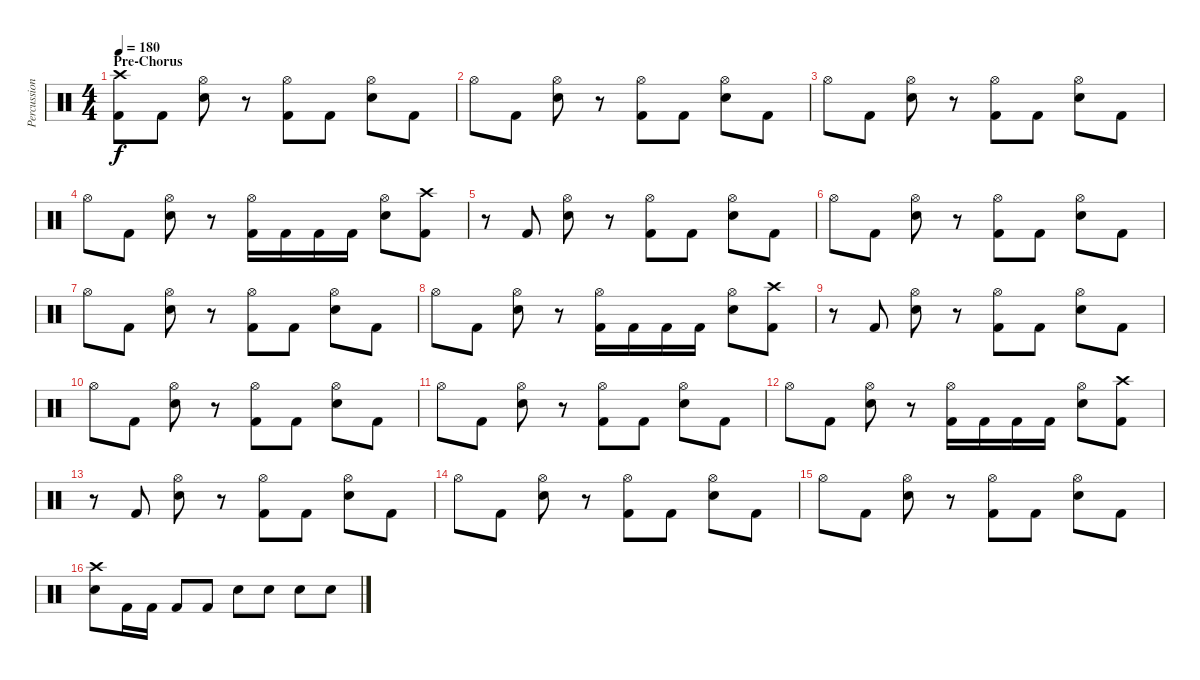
\track ("Percussion" "Percussion") {instrument percussion}
\staff {score}
\articulation defaults
\ts (4 4)
\section ("" "Pre-Chorus")
\tempo 180
\clef neutral
\ks c
("Crash high (hit)" "Kick (hit) 2").8{dy f} "Kick (hit) 2".8 ("Hi-Hat (open)" "Electric Snare (hit)").8 r.8 ("Hi-Hat (open)" "Kick (hit) 2").8 "Kick (hit) 2".8 ("Hi-Hat (open)" "Electric Snare (hit)").8 "Kick (hit) 2".8 |
"Hi-Hat (open)".8 "Kick (hit) 2".8 ("Hi-Hat (open)" "Electric Snare (hit)").8 r.8 ("Hi-Hat (open)" "Kick (hit) 2").8 "Kick (hit) 2".8 ("Hi-Hat (open)" "Electric Snare (hit)").8 "Kick (hit) 2".8 |
"Hi-Hat (open)".8 "Kick (hit) 2".8 ("Hi-Hat (open)" "Electric Snare (hit)").8 r.8 ("Hi-Hat (open)" "Kick (hit) 2").8 "Kick (hit) 2".8 ("Hi-Hat (open)" "Electric Snare (hit)").8 "Kick (hit) 2".8 |
"Hi-Hat (open)".8 "Kick (hit) 2".8 ("Hi-Hat (open)" "Electric Snare (hit)").8 r.8 ("Hi-Hat (open)" "Kick (hit) 2").16 "Kick (hit) 2".16 "Kick (hit) 2".16 "Kick (hit) 2".16 ("Hi-Hat (open)" "Electric Snare (hit)").8 ("Crash high (hit)" "Kick (hit) 2").8 |
r.8 "Kick (hit) 2".8 ("Hi-Hat (open)" "Electric Snare (hit)").8 r.8 ("Hi-Hat (open)" "Kick (hit) 2").8 "Kick (hit) 2".8 ("Hi-Hat (open)" "Electric Snare (hit)").8 "Kick (hit) 2".8 |
"Hi-Hat (open)".8 "Kick (hit) 2".8 ("Hi-Hat (open)" "Electric Snare (hit)").8 r.8 ("Hi-Hat (open)" "Kick (hit) 2").8 "Kick (hit) 2".8 ("Hi-Hat (open)" "Electric Snare (hit)").8 "Kick (hit) 2".8 |
"Hi-Hat (open)".8 "Kick (hit) 2".8 ("Hi-Hat (open)" "Electric Snare (hit)").8 r.8 ("Hi-Hat (open)" "Kick (hit) 2").8 "Kick (hit) 2".8 ("Hi-Hat (open)" "Electric Snare (hit)").8 "Kick (hit) 2".8 |
"Hi-Hat (open)".8 "Kick (hit) 2".8 ("Hi-Hat (open)" "Electric Snare (hit)").8 r.8 ("Hi-Hat (open)" "Kick (hit) 2").16 "Kick (hit) 2".16 "Kick (hit) 2".16 "Kick (hit) 2".16 ("Hi-Hat (open)" "Electric Snare (hit)").8 ("Crash high (hit)" "Kick (hit) 2").8 |
r.8 "Kick (hit) 2".8 ("Hi-Hat (open)" "Electric Snare (hit)").8 r.8 ("Hi-Hat (open)" "Kick (hit) 2").8 "Kick (hit) 2".8 ("Hi-Hat (open)" "Electric Snare (hit)").8 "Kick (hit) 2".8 |
"Hi-Hat (open)".8 "Kick (hit) 2".8 ("Hi-Hat (open)" "Electric Snare (hit)").8 r.8 ("Hi-Hat (open)" "Kick (hit) 2").8 "Kick (hit) 2".8 ("Hi-Hat (open)" "Electric Snare (hit)").8 "Kick (hit) 2".8 |
"Hi-Hat (open)".8 "Kick (hit) 2".8 ("Hi-Hat (open)" "Electric Snare (hit)").8 r.8 ("Hi-Hat (open)" "Kick (hit) 2").8 "Kick (hit) 2".8 ("Hi-Hat (open)" "Electric Snare (hit)").8 "Kick (hit) 2".8 |
"Hi-Hat (open)".8 "Kick (hit) 2".8 ("Hi-Hat (open)" "Electric Snare (hit)").8 r.8 ("Hi-Hat (open)" "Kick (hit) 2").16 "Kick (hit) 2".16 "Kick (hit) 2".16 "Kick (hit) 2".16 ("Hi-Hat (open)" "Electric Snare (hit)").8 ("Crash high (hit)" "Kick (hit) 2").8 |
r.8 "Kick (hit) 2".8 ("Hi-Hat (open)" "Electric Snare (hit)").8 r.8 ("Hi-Hat (open)" "Kick (hit) 2").8 "Kick (hit) 2".8 ("Hi-Hat (open)" "Electric Snare (hit)").8 "Kick (hit) 2".8 |
"Hi-Hat (open)".8 "Kick (hit) 2".8 ("Hi-Hat (open)" "Electric Snare (hit)").8 r.8 ("Hi-Hat (open)" "Kick (hit) 2").8 "Kick (hit) 2".8 ("Hi-Hat (open)" "Electric Snare (hit)").8 "Kick (hit) 2".8 |
"Hi-Hat (open)".8 "Kick (hit) 2".8 ("Hi-Hat (open)" "Electric Snare (hit)").8 r.8 ("Hi-Hat (open)" "Kick (hit) 2").8 "Kick (hit) 2".8 ("Hi-Hat (open)" "Electric Snare (hit)").8 "Kick (hit) 2".8 |
("Crash high (hit)" "Electric Snare (hit)").8 "Kick (hit) 2".16 "Kick (hit) 2".16 "Kick (hit) 2".8 "Kick (hit) 2".8 "Electric Snare (hit)".8 "Electric Snare (hit)".8 "Electric Snare (hit)".8 "Electric Snare (hit)".8
